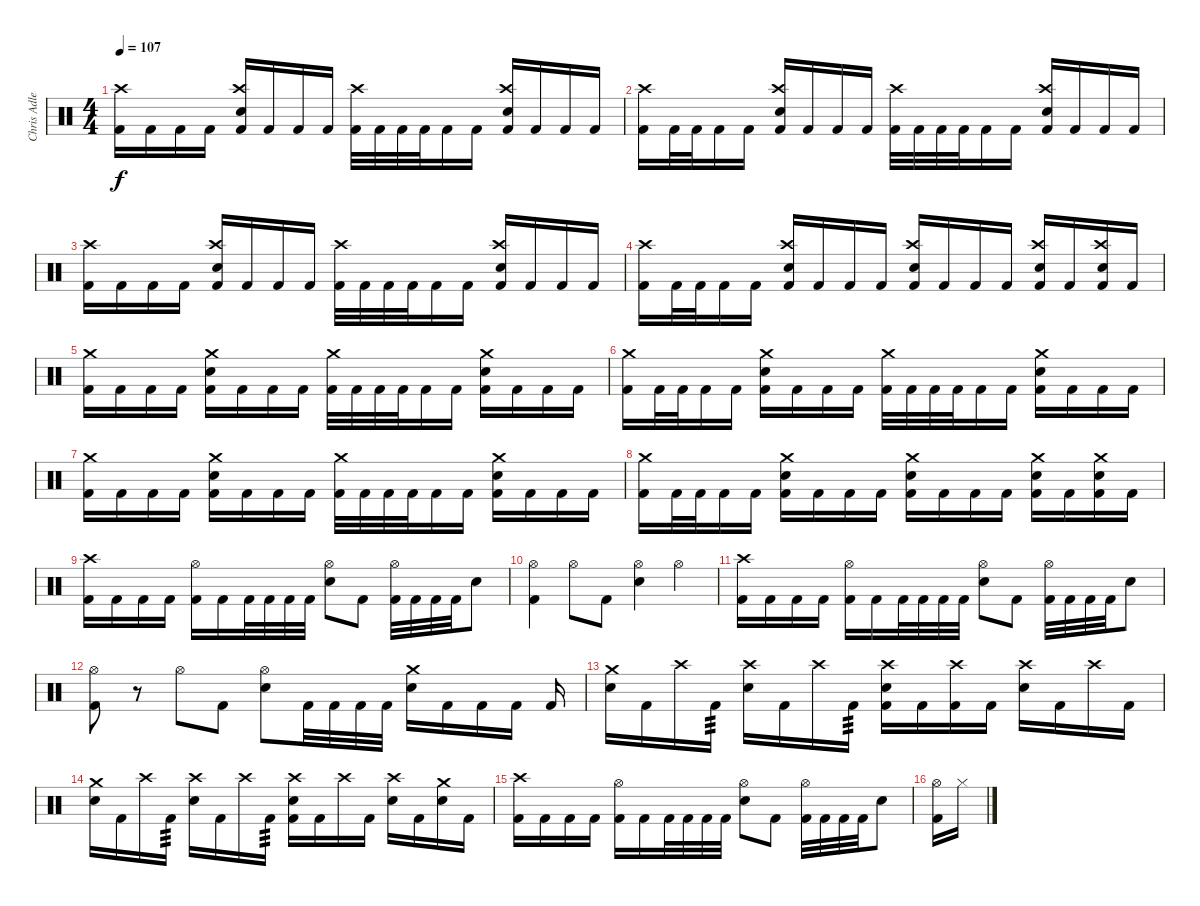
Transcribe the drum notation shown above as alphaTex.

\track ("Chris Adler" "Chris Adle") {instrument percussion}
\staff {score}
\articulation defaults
\ts (4 4)
\tempo 107
\clef neutral
\ks c
("Kick (hit) 2" "Crash high (hit)").16{dy f} "Kick (hit) 2".16 "Kick (hit) 2".16 "Kick (hit) 2".16 ("Kick (hit) 2" "Electric Snare (hit)" "Crash high (hit)").16 "Kick (hit) 2".16 "Kick (hit) 2".16 "Kick (hit) 2".16 ("Kick (hit) 2" "Crash high (hit)").32 "Kick (hit) 2".32 "Kick (hit) 2".32 "Kick (hit) 2".32 "Kick (hit) 2".16 "Kick (hit) 2".16 ("Kick (hit) 2" "Electric Snare (hit)" "Crash high (hit)").16 "Kick (hit) 2".16 "Kick (hit) 2".16 "Kick (hit) 2".16 |
("Kick (hit) 2" "Crash high (hit)").16 "Kick (hit) 2".32 "Kick (hit) 2".32 "Kick (hit) 2".16 "Kick (hit) 2".16 ("Kick (hit) 2" "Electric Snare (hit)" "Crash high (hit)").16 "Kick (hit) 2".16 "Kick (hit) 2".16 "Kick (hit) 2".16 ("Kick (hit) 2" "Crash high (hit)").32 "Kick (hit) 2".32 "Kick (hit) 2".32 "Kick (hit) 2".32 "Kick (hit) 2".16 "Kick (hit) 2".16 ("Kick (hit) 2" "Electric Snare (hit)" "Crash high (hit)").16 "Kick (hit) 2".16 "Kick (hit) 2".16 "Kick (hit) 2".16 |
("Kick (hit) 2" "Crash high (hit)").16 "Kick (hit) 2".16 "Kick (hit) 2".16 "Kick (hit) 2".16 ("Kick (hit) 2" "Electric Snare (hit)" "Crash high (hit)").16 "Kick (hit) 2".16 "Kick (hit) 2".16 "Kick (hit) 2".16 ("Kick (hit) 2" "Crash high (hit)").32 "Kick (hit) 2".32 "Kick (hit) 2".32 "Kick (hit) 2".32 "Kick (hit) 2".16 "Kick (hit) 2".16 ("Kick (hit) 2" "Electric Snare (hit)" "Crash high (hit)").16 "Kick (hit) 2".16 "Kick (hit) 2".16 "Kick (hit) 2".16 |
("Kick (hit) 2" "Crash high (hit)").16 "Kick (hit) 2".32 "Kick (hit) 2".32 "Kick (hit) 2".16 "Kick (hit) 2".16 ("Kick (hit) 2" "Electric Snare (hit)" "Crash high (hit)").16 "Kick (hit) 2".16 "Kick (hit) 2".16 "Kick (hit) 2".16 ("Kick (hit) 2" "Electric Snare (hit)" "Crash high (hit)").16 "Kick (hit) 2".16 "Kick (hit) 2".16 "Kick (hit) 2".16 ("Kick (hit) 2" "Electric Snare (hit)" "Crash high (hit)").16 "Kick (hit) 2".16 ("Kick (hit) 2" "Electric Snare (hit)" "Crash high (hit)").16 "Kick (hit) 2".16 |
("Kick (hit) 2" "Crash medium (hit)").16 "Kick (hit) 2".16 "Kick (hit) 2".16 "Kick (hit) 2".16 ("Kick (hit) 2" "Electric Snare (hit)" "Crash medium (hit)").16 "Kick (hit) 2".16 "Kick (hit) 2".16 "Kick (hit) 2".16 ("Kick (hit) 2" "Crash medium (hit)").32 "Kick (hit) 2".32 "Kick (hit) 2".32 "Kick (hit) 2".32 "Kick (hit) 2".16 "Kick (hit) 2".16 ("Kick (hit) 2" "Electric Snare (hit)" "Crash medium (hit)").16 "Kick (hit) 2".16 "Kick (hit) 2".16 "Kick (hit) 2".16 |
("Kick (hit) 2" "Crash medium (hit)").16 "Kick (hit) 2".32 "Kick (hit) 2".32 "Kick (hit) 2".16 "Kick (hit) 2".16 ("Kick (hit) 2" "Electric Snare (hit)" "Crash medium (hit)").16 "Kick (hit) 2".16 "Kick (hit) 2".16 "Kick (hit) 2".16 ("Kick (hit) 2" "Crash medium (hit)").32 "Kick (hit) 2".32 "Kick (hit) 2".32 "Kick (hit) 2".32 "Kick (hit) 2".16 "Kick (hit) 2".16 ("Kick (hit) 2" "Electric Snare (hit)" "Crash medium (hit)").16 "Kick (hit) 2".16 "Kick (hit) 2".16 "Kick (hit) 2".16 |
("Kick (hit) 2" "Crash medium (hit)").16 "Kick (hit) 2".16 "Kick (hit) 2".16 "Kick (hit) 2".16 ("Kick (hit) 2" "Electric Snare (hit)" "Crash medium (hit)").16 "Kick (hit) 2".16 "Kick (hit) 2".16 "Kick (hit) 2".16 ("Kick (hit) 2" "Crash medium (hit)").32 "Kick (hit) 2".32 "Kick (hit) 2".32 "Kick (hit) 2".32 "Kick (hit) 2".16 "Kick (hit) 2".16 ("Kick (hit) 2" "Electric Snare (hit)" "Crash medium (hit)").16 "Kick (hit) 2".16 "Kick (hit) 2".16 "Kick (hit) 2".16 |
("Kick (hit) 2" "Crash medium (hit)").16 "Kick (hit) 2".32 "Kick (hit) 2".32 "Kick (hit) 2".16 "Kick (hit) 2".16 ("Kick (hit) 2" "Electric Snare (hit)" "Crash medium (hit)").16 "Kick (hit) 2".16 "Kick (hit) 2".16 "Kick (hit) 2".16 ("Kick (hit) 2" "Electric Snare (hit)" "Crash medium (hit)").16 "Kick (hit) 2".16 "Kick (hit) 2".16 "Kick (hit) 2".16 ("Kick (hit) 2" "Electric Snare (hit)" "Crash medium (hit)").16 "Kick (hit) 2".16 ("Kick (hit) 2" "Electric Snare (hit)" "Crash medium (hit)").16 "Kick (hit) 2".16 |
("Kick (hit) 2" "Crash high (hit)").16 "Kick (hit) 2".16 "Kick (hit) 2".16 "Kick (hit) 2".16 ("Kick (hit) 2" "Hi-Hat (open)").16 "Kick (hit) 2".16 "Kick (hit) 2".32 "Kick (hit) 2".32 "Kick (hit) 2".32 "Kick (hit) 2".32 ("Electric Snare (hit)" "Hi-Hat (open)").8 "Kick (hit) 2".8 ("Kick (hit) 2" "Hi-Hat (open)").32 "Kick (hit) 2".32 "Kick (hit) 2".32 "Kick (hit) 2".32 "Electric Snare (hit)".8 |
("Kick (hit) 2" "Hi-Hat (open)").4 "Hi-Hat (open)".8 "Kick (hit) 2".8 ("Electric Snare (hit)" "Hi-Hat (open)").4 "Hi-Hat (open)".4 |
("Kick (hit) 2" "Crash high (hit)").16 "Kick (hit) 2".16 "Kick (hit) 2".16 "Kick (hit) 2".16 ("Kick (hit) 2" "Hi-Hat (open)").16 "Kick (hit) 2".16 "Kick (hit) 2".32 "Kick (hit) 2".32 "Kick (hit) 2".32 "Kick (hit) 2".32 ("Electric Snare (hit)" "Hi-Hat (open)").8 "Kick (hit) 2".8 ("Kick (hit) 2" "Hi-Hat (open)").32 "Kick (hit) 2".32 "Kick (hit) 2".32 "Kick (hit) 2".32 "Electric Snare (hit)".8 |
("Kick (hit) 2" "Hi-Hat (open)").8 r.8 "Hi-Hat (open)".8 "Kick (hit) 2".8 ("Electric Snare (hit)" "Hi-Hat (open)").8 "Kick (hit) 2".32 "Kick (hit) 2".32 "Kick (hit) 2".32 "Kick (hit) 2".32 ("Electric Snare (hit)" "Crash medium (hit)").16 "Kick (hit) 2".16 "Kick (hit) 2".16 "Kick (hit) 2".16 "Kick (hit) 2".16 |
("Electric Snare (hit)" "Crash medium (hit)").16 "Kick (hit) 2".16 "Crash high (hit)".16 "Kick (hit) 2".16{tp 3} ("Electric Snare (hit)" "Crash high (hit)").16 "Kick (hit) 2".16 "Crash high (hit)".16 "Kick (hit) 2".16{tp 3} ("Kick (hit) 2" "Electric Snare (hit)" "Crash high (hit)").16 "Kick (hit) 2".16 ("Kick (hit) 2" "Crash high (hit)").16 "Kick (hit) 2".16 ("Electric Snare (hit)" "Crash high (hit)").16 "Kick (hit) 2".16 "Crash high (hit)".16 "Kick (hit) 2".16 |
("Electric Snare (hit)" "Crash medium (hit)").16 "Kick (hit) 2".16 "Crash high (hit)".16 "Kick (hit) 2".16{tp 3} ("Electric Snare (hit)" "Crash high (hit)").16 "Kick (hit) 2".16 "Crash high (hit)".16 "Kick (hit) 2".16{tp 3} ("Kick (hit) 2" "Electric Snare (hit)" "Crash high (hit)").16 "Kick (hit) 2".16 "Crash high (hit)".16 "Kick (hit) 2".16 ("Electric Snare (hit)" "Crash high (hit)").16 "Kick (hit) 2".16 ("Electric Snare (hit)" "Crash medium (hit)").16 "Kick (hit) 2".16 |
("Kick (hit) 2" "Crash high (hit)").16 "Kick (hit) 2".16 "Kick (hit) 2".16 "Kick (hit) 2".16 ("Kick (hit) 2" "Hi-Hat (open)").16 "Kick (hit) 2".16 "Kick (hit) 2".32 "Kick (hit) 2".32 "Kick (hit) 2".32 "Kick (hit) 2".32 ("Electric Snare (hit)" "Hi-Hat (open)").8 "Kick (hit) 2".8 ("Kick (hit) 2" "Hi-Hat (open)").32 "Kick (hit) 2".32 "Kick (hit) 2".32 "Kick (hit) 2".32 "Electric Snare (hit)".8 |
("Kick (hit) 2" "Hi-Hat (open)").16 "Hi-Hat (closed)".16
